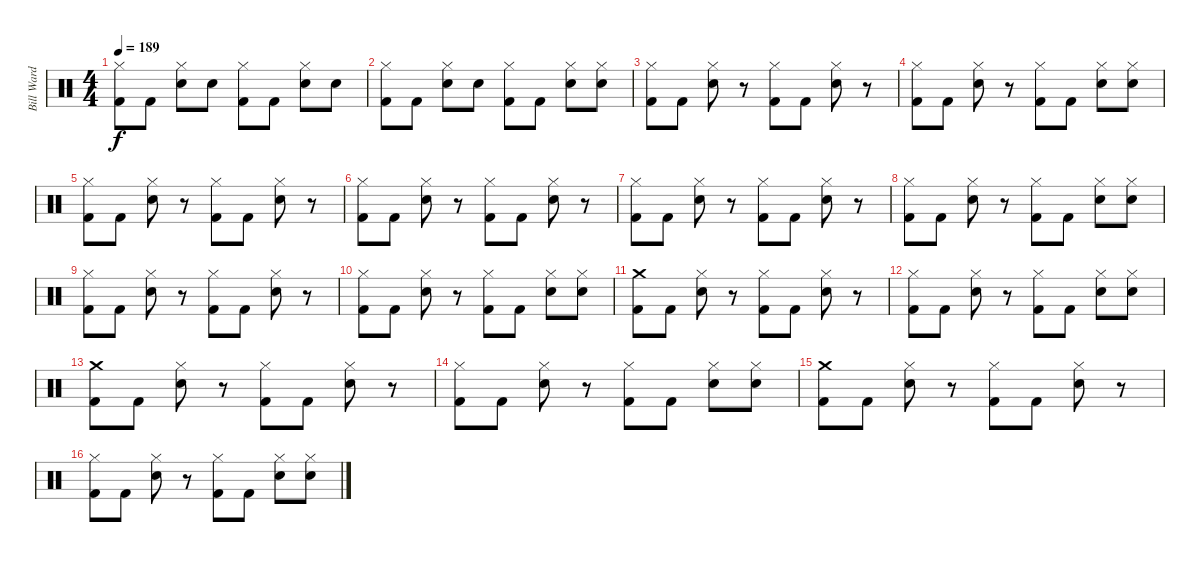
\track ("Bill Ward" "Bill Ward") {instrument percussion}
\staff {score}
\articulation defaults
\ts (4 4)
\tempo 189
\clef neutral
\ks c
("Kick (hit) 2" "Hi-Hat (closed)").8{dy f} "Kick (hit) 2".8 ("Electric Snare (hit)" "Hi-Hat (closed)").8 "Electric Snare (hit)".8 ("Hi-Hat (closed)" "Kick (hit) 2").8 "Kick (hit) 2".8 ("Hi-Hat (closed)" "Electric Snare (hit)").8 "Electric Snare (hit)".8 |
("Kick (hit) 2" "Hi-Hat (closed)").8 "Kick (hit) 2".8 ("Electric Snare (hit)" "Hi-Hat (closed)").8 "Electric Snare (hit)".8 ("Kick (hit) 2" "Hi-Hat (closed)").8 "Kick (hit) 2".8 ("Electric Snare (hit)" "Hi-Hat (closed)").8 ("Hi-Hat (closed)" "Electric Snare (hit)").8 |
("Hi-Hat (closed)" "Kick (hit) 2").8 "Kick (hit) 2".8 ("Electric Snare (hit)" "Hi-Hat (closed)").8 r.8 ("Kick (hit) 2" "Hi-Hat (closed)").8 "Kick (hit) 2".8 ("Electric Snare (hit)" "Hi-Hat (closed)").8 r.8 |
("Kick (hit) 2" "Hi-Hat (closed)").8 "Kick (hit) 2".8 ("Electric Snare (hit)" "Hi-Hat (closed)").8 r.8 ("Kick (hit) 2" "Hi-Hat (closed)").8 "Kick (hit) 2".8 ("Hi-Hat (closed)" "Electric Snare (hit)").8 ("Hi-Hat (closed)" "Electric Snare (hit)").8 |
("Hi-Hat (closed)" "Kick (hit) 2").8 "Kick (hit) 2".8 ("Hi-Hat (closed)" "Electric Snare (hit)").8 r.8 ("Hi-Hat (closed)" "Kick (hit) 2").8 "Kick (hit) 2".8 ("Electric Snare (hit)" "Hi-Hat (closed)").8 r.8 |
("Kick (hit) 2" "Hi-Hat (closed)").8 "Kick (hit) 2".8 ("Electric Snare (hit)" "Hi-Hat (closed)").8 r.8 ("Hi-Hat (closed)" "Kick (hit) 2").8 "Kick (hit) 2".8 ("Hi-Hat (closed)" "Electric Snare (hit)").8 r.8 |
("Hi-Hat (closed)" "Kick (hit) 2").8 "Kick (hit) 2".8 ("Electric Snare (hit)" "Hi-Hat (closed)").8 r.8 ("Hi-Hat (closed)" "Kick (hit) 2").8 "Kick (hit) 2".8 ("Hi-Hat (closed)" "Electric Snare (hit)").8 r.8 |
("Kick (hit) 2" "Hi-Hat (closed)").8 "Kick (hit) 2".8 ("Hi-Hat (closed)" "Electric Snare (hit)").8 r.8 ("Kick (hit) 2" "Hi-Hat (closed)").8 "Kick (hit) 2".8 ("Hi-Hat (closed)" "Electric Snare (hit)").8 ("Electric Snare (hit)" "Hi-Hat (closed)").8 |
("Hi-Hat (closed)" "Kick (hit) 2").8 "Kick (hit) 2".8 ("Hi-Hat (closed)" "Electric Snare (hit)").8 r.8 ("Kick (hit) 2" "Hi-Hat (closed)").8 "Kick (hit) 2".8 ("Hi-Hat (closed)" "Electric Snare (hit)").8 r.8 |
("Hi-Hat (closed)" "Kick (hit) 2").8 "Kick (hit) 2".8 ("Hi-Hat (closed)" "Electric Snare (hit)").8 r.8 ("Hi-Hat (closed)" "Kick (hit) 2").8 "Kick (hit) 2".8 ("Electric Snare (hit)" "Hi-Hat (closed)").8 ("Hi-Hat (closed)" "Electric Snare (hit)").8 |
("Crash medium (hit)" "Kick (hit) 2").8 "Kick (hit) 2".8 ("Electric Snare (hit)" "Hi-Hat (closed)").8 r.8 ("Kick (hit) 2" "Hi-Hat (closed)").8 "Kick (hit) 2".8 ("Hi-Hat (closed)" "Electric Snare (hit)").8 r.8 |
("Hi-Hat (closed)" "Kick (hit) 2").8 "Kick (hit) 2".8 ("Hi-Hat (closed)" "Electric Snare (hit)").8 r.8 ("Hi-Hat (closed)" "Kick (hit) 2").8 "Kick (hit) 2".8 ("Electric Snare (hit)" "Hi-Hat (closed)").8 ("Electric Snare (hit)" "Hi-Hat (closed)").8 |
("Kick (hit) 2" "Crash medium (hit)").8 "Kick (hit) 2".8 ("Hi-Hat (closed)" "Electric Snare (hit)").8 r.8 ("Hi-Hat (closed)" "Kick (hit) 2").8 "Kick (hit) 2".8 ("Hi-Hat (closed)" "Electric Snare (hit)").8 r.8 |
("Kick (hit) 2" "Hi-Hat (closed)").8 "Kick (hit) 2".8 ("Hi-Hat (closed)" "Electric Snare (hit)").8 r.8 ("Hi-Hat (closed)" "Kick (hit) 2").8 "Kick (hit) 2".8 ("Electric Snare (hit)" "Hi-Hat (closed)").8 ("Hi-Hat (closed)" "Electric Snare (hit)").8 |
("Crash medium (hit)" "Kick (hit) 2").8 "Kick (hit) 2".8 ("Electric Snare (hit)" "Hi-Hat (closed)").8 r.8 ("Hi-Hat (closed)" "Kick (hit) 2").8 "Kick (hit) 2".8 ("Hi-Hat (closed)" "Electric Snare (hit)").8 r.8 |
("Hi-Hat (closed)" "Kick (hit) 2").8 "Kick (hit) 2".8 ("Hi-Hat (closed)" "Electric Snare (hit)").8 r.8 ("Hi-Hat (closed)" "Kick (hit) 2").8 "Kick (hit) 2".8 ("Electric Snare (hit)" "Hi-Hat (closed)").8 ("Hi-Hat (closed)" "Electric Snare (hit)").8
